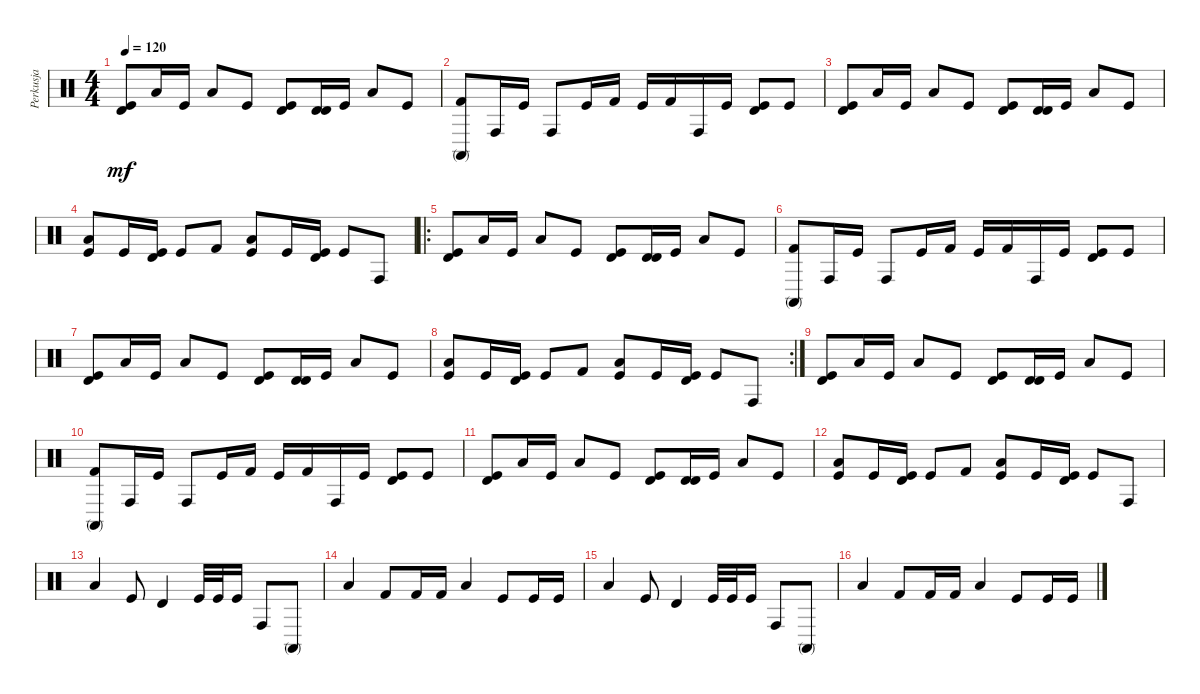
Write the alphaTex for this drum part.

\track ("Perkusja" "Perkusja") {instrument percussion}
\staff {score}
\articulation defaults
\ts (4 4)
\tempo 120
\clef neutral
\ks c
("Kick (hit)" "Timbale high (hit)").8{dy mf} "Low Tom (hit)".16 "Kick (hit)".16 "Low Tom (hit)".8 "Kick (hit)".8 ("Kick (hit)" "Timbale high (hit)").8 ("Timbale high (hit)" "Timbale high (hit)").16 "Kick (hit)".16 "Low Tom (hit)".8 "Kick (hit)".8 |
("Kick (hit) 2" "Conga high (mute)").8 "Conga high (hit)".16 "Kick (hit)".16 "Conga high (hit)".8 "Kick (hit)".16 "Kick (hit) 2".16 "Kick (hit)".16 "Kick (hit) 2".16 "Conga high (hit)".16 "Kick (hit)".16 ("Kick (hit)" "Timbale high (hit)").8 "Kick (hit)".8 |
("Kick (hit)" "Timbale high (hit)").8 "Low Tom (hit)".16 "Kick (hit)".16 "Low Tom (hit)".8 "Kick (hit)".8 ("Kick (hit)" "Timbale high (hit)").8 ("Timbale high (hit)" "Timbale high (hit)").16 "Kick (hit)".16 "Low Tom (hit)".8 "Kick (hit)".8 |
("Low Tom (hit)" "Kick (hit)").8 "Kick (hit)".16 ("Timbale high (hit)" "Kick (hit)").16 "Kick (hit)".8 "Kick (hit) 2".8 ("Low Tom (hit)" "Kick (hit)").8 "Kick (hit)".16 ("Timbale high (hit)" "Kick (hit)").16 "Kick (hit)".8 "Conga high (hit)".8 |
\ro
("Kick (hit)" "Timbale high (hit)").8 "Low Tom (hit)".16 "Kick (hit)".16 "Low Tom (hit)".8 "Kick (hit)".8 ("Kick (hit)" "Timbale high (hit)").8 ("Timbale high (hit)" "Timbale high (hit)").16 "Kick (hit)".16 "Low Tom (hit)".8 "Kick (hit)".8 |
("Kick (hit) 2" "Conga high (mute)").8 "Conga high (hit)".16 "Kick (hit)".16 "Conga high (hit)".8 "Kick (hit)".16 "Kick (hit) 2".16 "Kick (hit)".16 "Kick (hit) 2".16 "Conga high (hit)".16 "Kick (hit)".16 ("Kick (hit)" "Timbale high (hit)").8 "Kick (hit)".8 |
("Kick (hit)" "Timbale high (hit)").8 "Low Tom (hit)".16 "Kick (hit)".16 "Low Tom (hit)".8 "Kick (hit)".8 ("Kick (hit)" "Timbale high (hit)").8 ("Timbale high (hit)" "Timbale high (hit)").16 "Kick (hit)".16 "Low Tom (hit)".8 "Kick (hit)".8 |
\rc 2
("Low Tom (hit)" "Kick (hit)").8 "Kick (hit)".16 ("Timbale high (hit)" "Kick (hit)").16 "Kick (hit)".8 "Kick (hit) 2".8 ("Low Tom (hit)" "Kick (hit)").8 "Kick (hit)".16 ("Timbale high (hit)" "Kick (hit)").16 "Kick (hit)".8 "Conga high (hit)".8 |
("Kick (hit)" "Timbale high (hit)").8 "Low Tom (hit)".16 "Kick (hit)".16 "Low Tom (hit)".8 "Kick (hit)".8 ("Kick (hit)" "Timbale high (hit)").8 ("Timbale high (hit)" "Timbale high (hit)").16 "Kick (hit)".16 "Low Tom (hit)".8 "Kick (hit)".8 |
("Kick (hit) 2" "Conga high (mute)").8 "Conga high (hit)".16 "Kick (hit)".16 "Conga high (hit)".8 "Kick (hit)".16 "Kick (hit) 2".16 "Kick (hit)".16 "Kick (hit) 2".16 "Conga high (hit)".16 "Kick (hit)".16 ("Kick (hit)" "Timbale high (hit)").8 "Kick (hit)".8 |
("Kick (hit)" "Timbale high (hit)").8 "Low Tom (hit)".16 "Kick (hit)".16 "Low Tom (hit)".8 "Kick (hit)".8 ("Kick (hit)" "Timbale high (hit)").8 ("Timbale high (hit)" "Timbale high (hit)").16 "Kick (hit)".16 "Low Tom (hit)".8 "Kick (hit)".8 |
("Low Tom (hit)" "Kick (hit)").8 "Kick (hit)".16 ("Timbale high (hit)" "Kick (hit)").16 "Kick (hit)".8 "Kick (hit) 2".8 ("Low Tom (hit)" "Kick (hit)").8 "Kick (hit)".16 ("Timbale high (hit)" "Kick (hit)").16 "Kick (hit)".8 "Conga high (hit)".8 |
"Low Tom (hit)".4 "Kick (hit)".8 "Timbale high (hit)".4 "Kick (hit)".32 "Kick (hit)".32 "Kick (hit)".16 "Conga high (hit)".8 "Conga high (mute)".8 |
"Low Tom (hit)".4 "Kick (hit) 2".8 "Kick (hit) 2".16 "Kick (hit) 2".16 "Low Tom (hit)".4 "Kick (hit)".8 "Kick (hit)".16 "Kick (hit)".16 |
"Low Tom (hit)".4 "Kick (hit)".8 "Timbale high (hit)".4 "Kick (hit)".32 "Kick (hit)".32 "Kick (hit)".16 "Conga high (hit)".8 "Conga high (mute)".8 |
"Low Tom (hit)".4 "Kick (hit) 2".8 "Kick (hit) 2".16 "Kick (hit) 2".16 "Low Tom (hit)".4 "Kick (hit)".8 "Kick (hit)".16 "Kick (hit)".16
